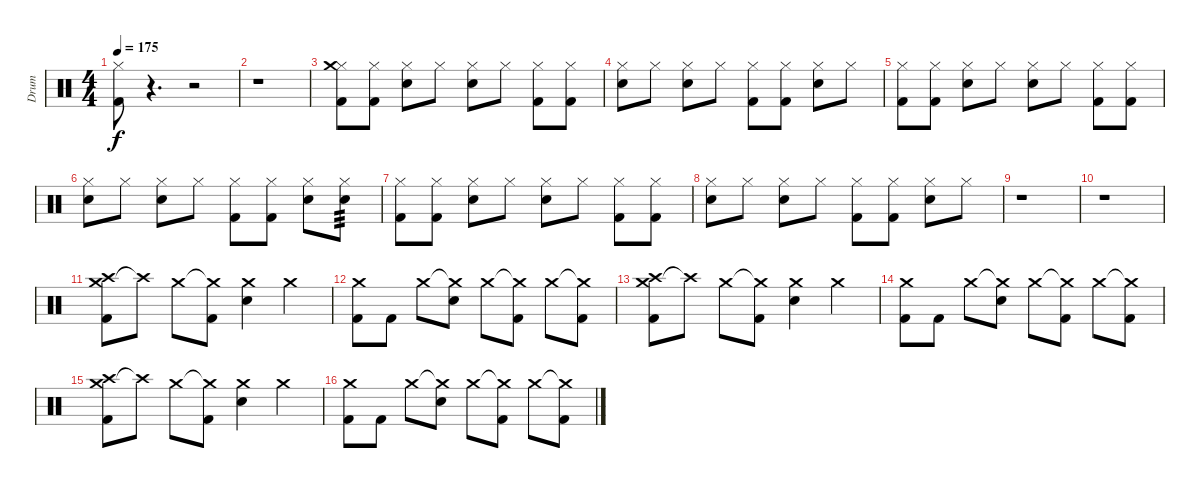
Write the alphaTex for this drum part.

\track ("Drum" "Drum") {instrument percussion}
\staff {score}
\articulation defaults
\ts (4 4)
\tempo 175
\clef neutral
\ks c
("Hi-Hat (closed)" "Kick (hit) 2").8{dy f} r.4{d} r.2 |
r.1 |
("Hi-Hat (closed)" "Crash medium (hit)" "Kick (hit) 2").8 ("Hi-Hat (closed)" "Kick (hit) 2").8 ("Hi-Hat (closed)" "Snare (hit) 2").8 "Hi-Hat (closed)".8 ("Hi-Hat (closed)" "Snare (hit) 2").8 "Hi-Hat (closed)".8 ("Hi-Hat (closed)" "Kick (hit) 2").8 ("Hi-Hat (closed)" "Kick (hit) 2").8 |
("Hi-Hat (closed)" "Snare (hit) 2").8 "Hi-Hat (closed)".8 ("Hi-Hat (closed)" "Snare (hit) 2").8 "Hi-Hat (closed)".8 ("Hi-Hat (closed)" "Kick (hit) 2").8 ("Hi-Hat (closed)" "Kick (hit) 2").8 ("Hi-Hat (closed)" "Snare (hit) 2").8 "Hi-Hat (closed)".8 |
("Hi-Hat (closed)" "Kick (hit) 2").8 ("Hi-Hat (closed)" "Kick (hit) 2").8 ("Hi-Hat (closed)" "Snare (hit) 2").8 "Hi-Hat (closed)".8 ("Hi-Hat (closed)" "Snare (hit) 2").8 "Hi-Hat (closed)".8 ("Hi-Hat (closed)" "Kick (hit) 2").8 ("Hi-Hat (closed)" "Kick (hit) 2").8 |
("Hi-Hat (closed)" "Snare (hit) 2").8 "Hi-Hat (closed)".8 ("Hi-Hat (closed)" "Snare (hit) 2").8 "Hi-Hat (closed)".8 ("Hi-Hat (closed)" "Kick (hit) 2").8 ("Hi-Hat (closed)" "Kick (hit) 2").8 ("Hi-Hat (closed)" "Snare (hit) 2").8 ("Hi-Hat (closed)" "Snare (hit) 2").8{tp 3} |
("Hi-Hat (closed)" "Kick (hit) 2").8 ("Hi-Hat (closed)" "Kick (hit) 2").8 ("Hi-Hat (closed)" "Snare (hit) 2").8 "Hi-Hat (closed)".8 ("Hi-Hat (closed)" "Snare (hit) 2").8 "Hi-Hat (closed)".8 ("Hi-Hat (closed)" "Kick (hit) 2").8 ("Hi-Hat (closed)" "Kick (hit) 2").8 |
("Hi-Hat (closed)" "Snare (hit) 2").8 "Hi-Hat (closed)".8 ("Hi-Hat (closed)" "Snare (hit) 2").8 "Hi-Hat (closed)".8 ("Hi-Hat (closed)" "Kick (hit) 2").8 ("Hi-Hat (closed)" "Kick (hit) 2").8 ("Hi-Hat (closed)" "Snare (hit) 2").8 "Hi-Hat (closed)".8 |
r.1 |
r.1 |
("Crash medium (hit)" "Crash high (hit)" "Kick (hit) 2").8 "Crash high (hit)"{t}.8 "Crash medium (hit)".8 ("Crash medium (hit)"{t} "Kick (hit) 2").8 ("Crash medium (hit)" "Snare (hit) 2").4 "Crash medium (hit)".4 |
("Crash medium (hit)" "Kick (hit) 2").8 "Kick (hit) 2".8 "Crash medium (hit)".8 ("Crash medium (hit)"{t} "Snare (hit) 2").8 "Crash medium (hit)".8 ("Crash medium (hit)"{t} "Kick (hit) 2").8 "Crash medium (hit)".8 ("Crash medium (hit)"{t} "Kick (hit) 2").8 |
("Crash medium (hit)" "Crash high (hit)" "Kick (hit) 2").8 "Crash high (hit)"{t}.8 "Crash medium (hit)".8 ("Crash medium (hit)"{t} "Kick (hit) 2").8 ("Crash medium (hit)" "Snare (hit) 2").4 "Crash medium (hit)".4 |
("Crash medium (hit)" "Kick (hit) 2").8 "Kick (hit) 2".8 "Crash medium (hit)".8 ("Crash medium (hit)"{t} "Snare (hit) 2").8 "Crash medium (hit)".8 ("Crash medium (hit)"{t} "Kick (hit) 2").8 "Crash medium (hit)".8 ("Crash medium (hit)"{t} "Kick (hit) 2").8 |
("Crash medium (hit)" "Crash high (hit)" "Kick (hit) 2").8 "Crash high (hit)"{t}.8 "Crash medium (hit)".8 ("Crash medium (hit)"{t} "Kick (hit) 2").8 ("Crash medium (hit)" "Snare (hit) 2").4 "Crash medium (hit)".4 |
("Crash medium (hit)" "Kick (hit) 2").8 "Kick (hit) 2".8 "Crash medium (hit)".8 ("Crash medium (hit)"{t} "Snare (hit) 2").8 "Crash medium (hit)".8 ("Crash medium (hit)"{t} "Kick (hit) 2").8 "Crash medium (hit)".8 ("Crash medium (hit)"{t} "Kick (hit) 2").8
